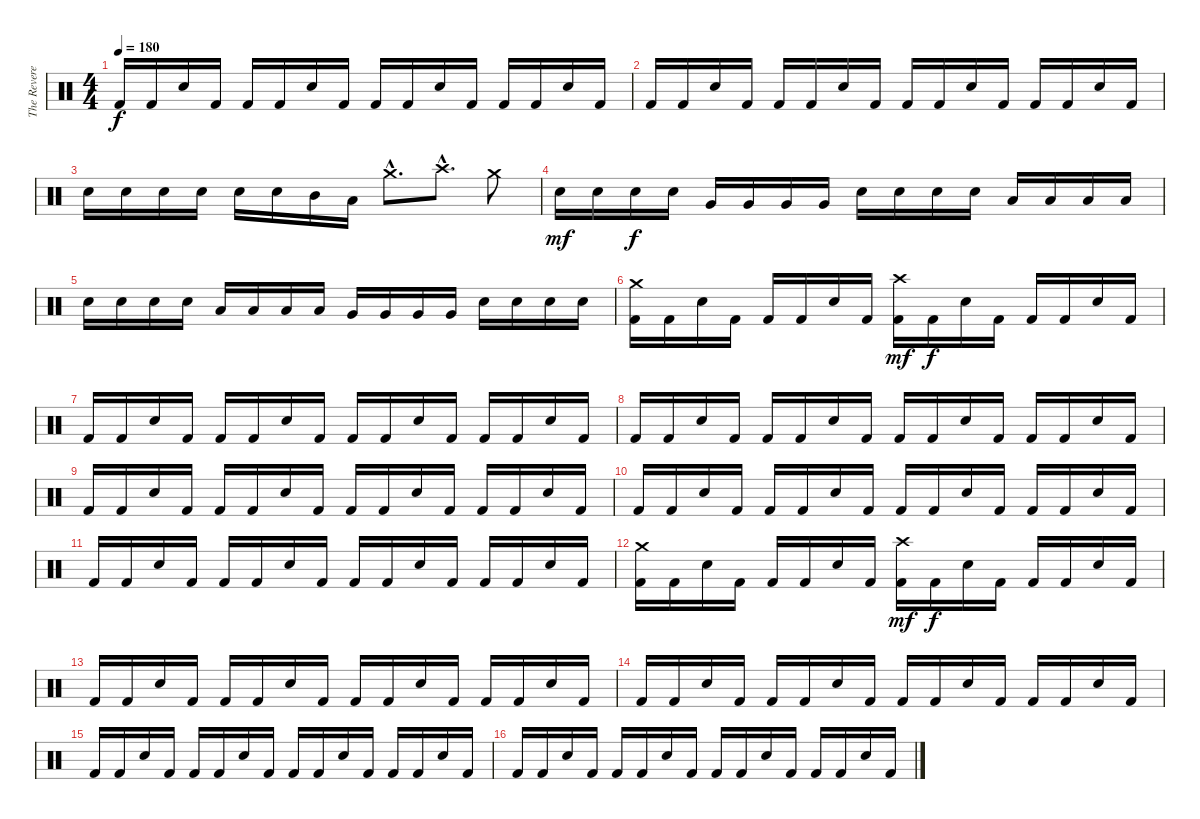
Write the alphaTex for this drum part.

\track ("The Reverend" "The Revere") {instrument percussion}
\staff {score}
\articulation defaults
\ts (4 4)
\tempo 180
\clef neutral
\ks c "Kick (hit) 2".16{dy f} "Kick (hit) 2".16 "Snare (hit) 2".16 "Kick (hit) 2".16 "Kick (hit) 2".16 "Kick (hit) 2".16 "Snare (hit) 2".16 "Kick (hit) 2".16 "Kick (hit) 2".16 "Kick (hit) 2".16 "Snare (hit) 2".16 "Kick (hit) 2".16 "Kick (hit) 2".16 "Kick (hit) 2".16 "Snare (hit) 2".16 "Kick (hit) 2".16
|
"Kick (hit) 2".16 "Kick (hit) 2".16 "Snare (hit) 2".16 "Kick (hit) 2".16 "Kick (hit) 2".16 "Kick (hit) 2".16 "Snare (hit) 2".16 "Kick (hit) 2".16 "Kick (hit) 2".16 "Kick (hit) 2".16 "Snare (hit) 2".16 "Kick (hit) 2".16 "Kick (hit) 2".16 "Kick (hit) 2".16 "Snare (hit) 2".16 "Kick (hit) 2".16 |
"Snare (hit) 2".16 "Snare (hit) 2".16 "Snare (hit) 2".16 "Snare (hit) 2".16 "Snare (hit) 2".16 "Snare (hit) 2".16 "Mid Tom (hit)".16 "Low Tom (hit)".16 "Crash medium (hit)"{hac}.8{d} "Crash high (hit)"{hac}.8{d} "Crash medium (hit)".8 |
"Snare (hit) 2".16{dy mf} "Snare (hit) 2".16 "Snare (hit) 2".16{dy f} "Snare (hit) 2".16 "Very Low Tom (hit)".16 "Very Low Tom (hit)".16 "Very Low Tom (hit)".16 "Very Low Tom (hit)".16 "Snare (hit) 2".16 "Snare (hit) 2".16 "Snare (hit) 2".16 "Snare (hit) 2".16 "Low Tom (hit)".16 "Low Tom (hit)".16 "Low Tom (hit)".16 "Low Tom (hit)".16 |
"Snare (hit) 2".16 "Snare (hit) 2".16 "Snare (hit) 2".16 "Snare (hit) 2".16 "Low Tom (hit)".16 "Low Tom (hit)".16 "Low Tom (hit)".16 "Low Tom (hit)".16 "Very Low Tom (hit)".16 "Very Low Tom (hit)".16 "Very Low Tom (hit)".16 "Very Low Tom (hit)".16 "Snare (hit) 2".16 "Snare (hit) 2".16 "Snare (hit) 2".16 "Snare (hit) 2".16 |
("Crash medium (hit)" "Kick (hit) 2").16 "Kick (hit) 2".16 "Snare (hit) 2".16 "Kick (hit) 2".16 "Kick (hit) 2".16 "Kick (hit) 2".16 "Snare (hit) 2".16 "Kick (hit) 2".16 ("Crash high (hit)" "Kick (hit) 2").16{dy mf} "Kick (hit) 2".16{dy f} "Snare (hit) 2".16 "Kick (hit) 2".16 "Kick (hit) 2".16 "Kick (hit) 2".16 "Snare (hit) 2".16 "Kick (hit) 2".16 |
"Kick (hit) 2".16 "Kick (hit) 2".16 "Snare (hit) 2".16 "Kick (hit) 2".16 "Kick (hit) 2".16 "Kick (hit) 2".16 "Snare (hit) 2".16 "Kick (hit) 2".16 "Kick (hit) 2".16 "Kick (hit) 2".16 "Snare (hit) 2".16 "Kick (hit) 2".16 "Kick (hit) 2".16 "Kick (hit) 2".16 "Snare (hit) 2".16 "Kick (hit) 2".16 |
"Kick (hit) 2".16 "Kick (hit) 2".16 "Snare (hit) 2".16 "Kick (hit) 2".16 "Kick (hit) 2".16 "Kick (hit) 2".16 "Snare (hit) 2".16 "Kick (hit) 2".16 "Kick (hit) 2".16 "Kick (hit) 2".16 "Snare (hit) 2".16 "Kick (hit) 2".16 "Kick (hit) 2".16 "Kick (hit) 2".16 "Snare (hit) 2".16 "Kick (hit) 2".16 |
"Kick (hit) 2".16 "Kick (hit) 2".16 "Snare (hit) 2".16 "Kick (hit) 2".16 "Kick (hit) 2".16 "Kick (hit) 2".16 "Snare (hit) 2".16 "Kick (hit) 2".16 "Kick (hit) 2".16 "Kick (hit) 2".16 "Snare (hit) 2".16 "Kick (hit) 2".16 "Kick (hit) 2".16 "Kick (hit) 2".16 "Snare (hit) 2".16 "Kick (hit) 2".16 |
"Kick (hit) 2".16 "Kick (hit) 2".16 "Snare (hit) 2".16 "Kick (hit) 2".16 "Kick (hit) 2".16 "Kick (hit) 2".16 "Snare (hit) 2".16 "Kick (hit) 2".16 "Kick (hit) 2".16 "Kick (hit) 2".16 "Snare (hit) 2".16 "Kick (hit) 2".16 "Kick (hit) 2".16 "Kick (hit) 2".16 "Snare (hit) 2".16 "Kick (hit) 2".16 |
"Kick (hit) 2".16 "Kick (hit) 2".16 "Snare (hit) 2".16 "Kick (hit) 2".16 "Kick (hit) 2".16 "Kick (hit) 2".16 "Snare (hit) 2".16 "Kick (hit) 2".16 "Kick (hit) 2".16 "Kick (hit) 2".16 "Snare (hit) 2".16 "Kick (hit) 2".16 "Kick (hit) 2".16 "Kick (hit) 2".16 "Snare (hit) 2".16 "Kick (hit) 2".16 |
("Crash medium (hit)" "Kick (hit) 2").16 "Kick (hit) 2".16 "Snare (hit) 2".16 "Kick (hit) 2".16 "Kick (hit) 2".16 "Kick (hit) 2".16 "Snare (hit) 2".16 "Kick (hit) 2".16 ("Crash high (hit)" "Kick (hit) 2").16{dy mf} "Kick (hit) 2".16{dy f} "Snare (hit) 2".16 "Kick (hit) 2".16 "Kick (hit) 2".16 "Kick (hit) 2".16 "Snare (hit) 2".16 "Kick (hit) 2".16 |
"Kick (hit) 2".16 "Kick (hit) 2".16 "Snare (hit) 2".16 "Kick (hit) 2".16 "Kick (hit) 2".16 "Kick (hit) 2".16 "Snare (hit) 2".16 "Kick (hit) 2".16 "Kick (hit) 2".16 "Kick (hit) 2".16 "Snare (hit) 2".16 "Kick (hit) 2".16 "Kick (hit) 2".16 "Kick (hit) 2".16 "Snare (hit) 2".16 "Kick (hit) 2".16 |
"Kick (hit) 2".16 "Kick (hit) 2".16 "Snare (hit) 2".16 "Kick (hit) 2".16 "Kick (hit) 2".16 "Kick (hit) 2".16 "Snare (hit) 2".16 "Kick (hit) 2".16 "Kick (hit) 2".16 "Kick (hit) 2".16 "Snare (hit) 2".16 "Kick (hit) 2".16 "Kick (hit) 2".16 "Kick (hit) 2".16 "Snare (hit) 2".16 "Kick (hit) 2".16 |
"Kick (hit) 2".16 "Kick (hit) 2".16 "Snare (hit) 2".16 "Kick (hit) 2".16 "Kick (hit) 2".16 "Kick (hit) 2".16 "Snare (hit) 2".16 "Kick (hit) 2".16 "Kick (hit) 2".16 "Kick (hit) 2".16 "Snare (hit) 2".16 "Kick (hit) 2".16 "Kick (hit) 2".16 "Kick (hit) 2".16 "Snare (hit) 2".16 "Kick (hit) 2".16 |
"Kick (hit) 2".16 "Kick (hit) 2".16 "Snare (hit) 2".16 "Kick (hit) 2".16 "Kick (hit) 2".16 "Kick (hit) 2".16 "Snare (hit) 2".16 "Kick (hit) 2".16 "Kick (hit) 2".16 "Kick (hit) 2".16 "Snare (hit) 2".16 "Kick (hit) 2".16 "Kick (hit) 2".16 "Kick (hit) 2".16 "Snare (hit) 2".16 "Kick (hit) 2".16
